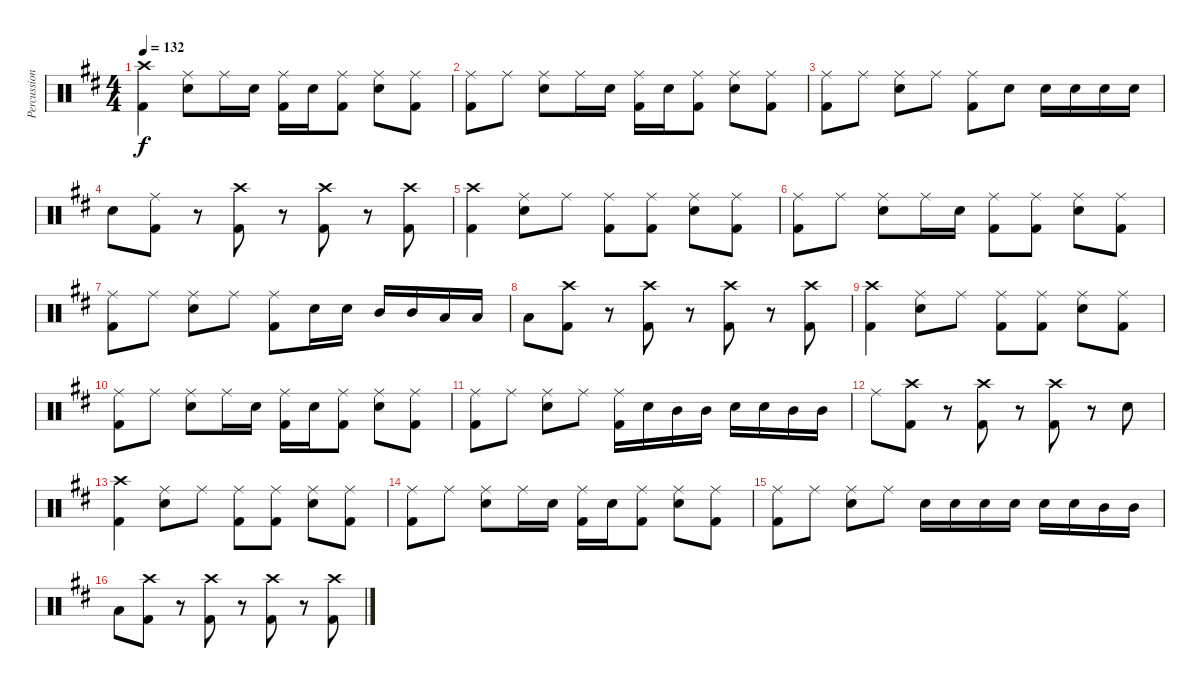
\track ("Percussion" "Percussion") {instrument percussion}
\staff {score}
\articulation defaults
\ts (4 4)
\tempo 132
\clef neutral
\ks d
("Crash high (hit)" "Kick (hit) 2").4{dy f} ("Ride (middle)" "Snare (hit) 2").8 "Ride (middle)".16 "Snare (hit) 2".16 ("Ride (middle)" "Kick (hit) 2").16 "Snare (hit) 2".16 ("Ride (middle)" "Kick (hit) 2").8 ("Ride (middle)" "Snare (hit) 2").8 ("Ride (middle)" "Kick (hit) 2").8 |
("Ride (middle)" "Kick (hit) 2").8 "Ride (middle)".8 ("Ride (middle)" "Snare (hit) 2").8 "Ride (middle)".16 "Snare (hit) 2".16 ("Ride (middle)" "Kick (hit) 2").16 "Snare (hit) 2".16 ("Ride (middle)" "Kick (hit) 2").8 ("Ride (middle)" "Snare (hit) 2").8 ("Ride (middle)" "Kick (hit) 2").8 |
("Ride (middle)" "Kick (hit) 2").8 "Ride (middle)".8 ("Ride (middle)" "Snare (hit) 2").8 "Ride (middle)".8 ("Ride (middle)" "Kick (hit) 2").8 "Snare (hit) 2".8 "Snare (hit) 2".16 "Snare (hit) 2".16 "Snare (hit) 2".16 "Snare (hit) 2".16 |
"Snare (hit) 2".8 ("Ride (middle)" "Kick (hit) 2").8 r.8 ("Crash high (hit)" "Kick (hit) 2").8 r.8 ("Crash high (hit)" "Kick (hit) 2").8 r.8 ("Crash high (hit)" "Kick (hit) 2").8 |
("Crash high (hit)" "Kick (hit) 2").4 ("Ride (middle)" "Snare (hit) 2").8 "Ride (middle)".8 ("Ride (middle)" "Kick (hit) 2").8 ("Ride (middle)" "Kick (hit) 2").8 ("Ride (middle)" "Snare (hit) 2").8 ("Ride (middle)" "Kick (hit) 2").8 |
("Ride (middle)" "Kick (hit) 2").8 "Ride (middle)".8 ("Ride (middle)" "Snare (hit) 2").8 "Ride (middle)".16 "Snare (hit) 2".16 ("Ride (middle)" "Kick (hit) 2").8 ("Ride (middle)" "Kick (hit) 2").8 ("Ride (middle)" "Snare (hit) 2").8 ("Ride (middle)" "Kick (hit) 2").8 |
("Ride (middle)" "Kick (hit) 2").8 "Ride (middle)".8 ("Ride (middle)" "Snare (hit) 2").8 "Ride (middle)".8 ("Ride (middle)" "Kick (hit) 2").8 "Snare (hit) 2".16 "Snare (hit) 2".16 "Mid Tom (hit)".16 "Mid Tom (hit)".16 "Low Floor Tom (hit)".16 "Low Floor Tom (hit)".16 |
"Low Floor Tom (hit)".8 ("Crash high (hit)" "Kick (hit) 2").8 r.8 ("Crash high (hit)" "Kick (hit) 2").8 r.8 ("Crash high (hit)" "Kick (hit) 2").8 r.8 ("Crash high (hit)" "Kick (hit) 2").8 |
("Crash high (hit)" "Kick (hit) 2").4 ("Ride (middle)" "Snare (hit) 2").8 "Ride (middle)".8 ("Ride (middle)" "Kick (hit) 2").8 ("Ride (middle)" "Kick (hit) 2").8 ("Ride (middle)" "Snare (hit) 2").8 ("Ride (middle)" "Kick (hit) 2").8 |
("Ride (middle)" "Kick (hit) 2").8 "Ride (middle)".8 ("Ride (middle)" "Snare (hit) 2").8 "Ride (middle)".16 "Snare (hit) 2".16 ("Ride (middle)" "Kick (hit) 2").16 "Snare (hit) 2".16 ("Ride (middle)" "Kick (hit) 2").8 ("Ride (middle)" "Snare (hit) 2").8 ("Ride (middle)" "Kick (hit) 2").8 |
("Ride (middle)" "Kick (hit) 2").8 "Ride (middle)".8 ("Ride (middle)" "Snare (hit) 2").8 "Ride (middle)".8 ("Ride (middle)" "Kick (hit) 2").16 "Snare (hit) 2".16 "Mid Tom (hit)".16 "Mid Tom (hit)".16 "Snare (hit) 2".16 "Snare (hit) 2".16 "Mid Tom (hit)".16 "Mid Tom (hit)".16 |
"Ride (middle)".8 ("Crash high (hit)" "Kick (hit) 2").8 r.8 ("Crash high (hit)" "Kick (hit) 2").8 r.8 ("Crash high (hit)" "Kick (hit) 2").8 r.8 "Snare (hit) 2".8 |
("Crash high (hit)" "Kick (hit) 2").4 ("Ride (middle)" "Snare (hit) 2").8 "Ride (middle)".8 ("Ride (middle)" "Kick (hit) 2").8 ("Ride (middle)" "Kick (hit) 2").8 ("Ride (middle)" "Snare (hit) 2").8 ("Ride (middle)" "Kick (hit) 2").8 |
("Ride (middle)" "Kick (hit) 2").8 "Ride (middle)".8 ("Ride (middle)" "Snare (hit) 2").8 "Ride (middle)".16 "Snare (hit) 2".16 ("Ride (middle)" "Kick (hit) 2").16 "Snare (hit) 2".16 ("Ride (middle)" "Kick (hit) 2").8 ("Ride (middle)" "Snare (hit) 2").8 ("Ride (middle)" "Kick (hit) 2").8 |
("Ride (middle)" "Kick (hit) 2").8 "Ride (middle)".8 ("Ride (middle)" "Snare (hit) 2").8 "Ride (middle)".8 "Snare (hit) 2".16 "Snare (hit) 2".16 "Snare (hit) 2".16 "Snare (hit) 2".16 "Snare (hit) 2".16 "Snare (hit) 2".16 "Mid Tom (hit)".16 "Mid Tom (hit)".16 |
"Low Floor Tom (hit)".8 ("Crash high (hit)" "Kick (hit) 2").8 r.8 ("Crash high (hit)" "Kick (hit) 2").8 r.8 ("Crash high (hit)" "Kick (hit) 2").8 r.8 ("Crash high (hit)" "Kick (hit) 2").8
